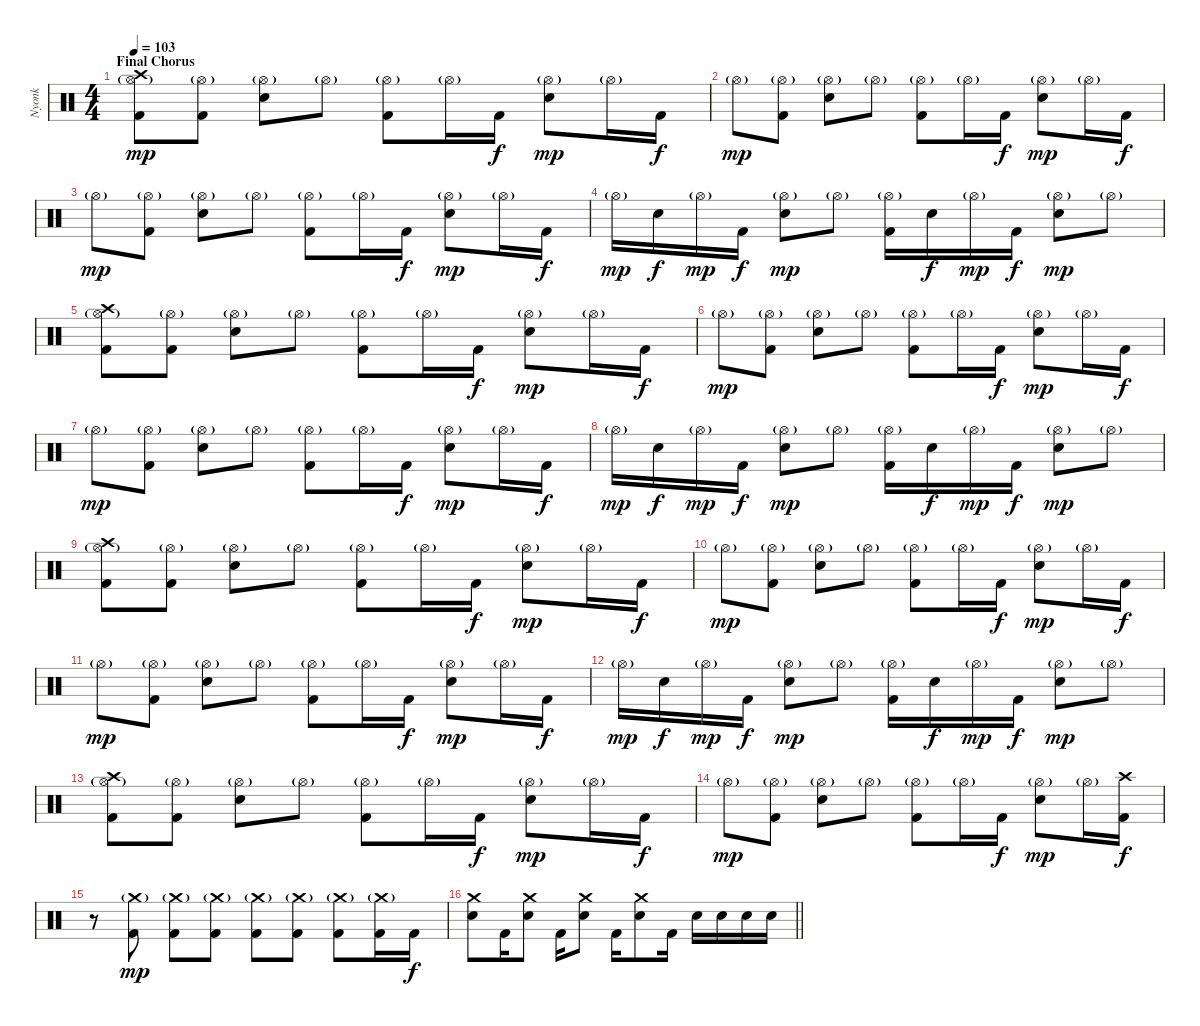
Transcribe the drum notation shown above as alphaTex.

\track ("Nyonk" "Nyonk") {instrument percussion}
\staff {score}
\articulation defaults
\ts (4 4)
\section ("" "Final Chorus")
\tempo 103
\clef neutral
\ks c
("Crash high (hit)" "Hi-Hat (open)"{g} "Kick (hit) 2").8{dy mp} ("Hi-Hat (open)"{g} "Kick (hit) 2").8 ("Hi-Hat (open)"{g} "Electric Snare (hit)").8 "Hi-Hat (open)"{g}.8 ("Hi-Hat (open)"{g} "Kick (hit) 2").8 "Hi-Hat (open)"{g}.16 "Kick (hit) 2".16{dy f} ("Hi-Hat (open)"{g} "Electric Snare (hit)").8{dy mp} "Hi-Hat (open)"{g}.16 "Kick (hit) 2".16{dy f} |
"Hi-Hat (open)"{g}.8{dy mp} ("Hi-Hat (open)"{g} "Kick (hit) 2").8 ("Hi-Hat (open)"{g} "Electric Snare (hit)").8 "Hi-Hat (open)"{g}.8 ("Hi-Hat (open)"{g} "Kick (hit) 2").8 "Hi-Hat (open)"{g}.16 "Kick (hit) 2".16{dy f} ("Hi-Hat (open)"{g} "Electric Snare (hit)").8{dy mp} "Hi-Hat (open)"{g}.16 "Kick (hit) 2".16{dy f} |
"Hi-Hat (open)"{g}.8{dy mp} ("Hi-Hat (open)"{g} "Kick (hit) 2").8 ("Hi-Hat (open)"{g} "Electric Snare (hit)").8 "Hi-Hat (open)"{g}.8 ("Hi-Hat (open)"{g} "Kick (hit) 2").8 "Hi-Hat (open)"{g}.16 "Kick (hit) 2".16{dy f} ("Hi-Hat (open)"{g} "Electric Snare (hit)").8{dy mp} "Hi-Hat (open)"{g}.16 "Kick (hit) 2".16{dy f} |
"Hi-Hat (open)"{g}.16{dy mp} "Electric Snare (hit)".16{dy f} "Hi-Hat (open)"{g}.16{dy mp} "Kick (hit) 2".16{dy f} ("Hi-Hat (open)"{g} "Electric Snare (hit)").8{dy mp} "Hi-Hat (open)"{g}.8 ("Hi-Hat (open)"{g} "Kick (hit) 2").16 "Electric Snare (hit)".16{dy f} "Hi-Hat (open)"{g}.16{dy mp} "Kick (hit) 2".16{dy f} ("Hi-Hat (open)"{g} "Electric Snare (hit)").8{dy mp} "Hi-Hat (open)"{g}.8 |
("Crash high (hit)" "Hi-Hat (open)"{g} "Kick (hit) 2").8 ("Hi-Hat (open)"{g} "Kick (hit) 2").8 ("Hi-Hat (open)"{g} "Electric Snare (hit)").8 "Hi-Hat (open)"{g}.8 ("Hi-Hat (open)"{g} "Kick (hit) 2").8 "Hi-Hat (open)"{g}.16 "Kick (hit) 2".16{dy f} ("Hi-Hat (open)"{g} "Electric Snare (hit)").8{dy mp} "Hi-Hat (open)"{g}.16 "Kick (hit) 2".16{dy f} |
"Hi-Hat (open)"{g}.8{dy mp} ("Hi-Hat (open)"{g} "Kick (hit) 2").8 ("Hi-Hat (open)"{g} "Electric Snare (hit)").8 "Hi-Hat (open)"{g}.8 ("Hi-Hat (open)"{g} "Kick (hit) 2").8 "Hi-Hat (open)"{g}.16 "Kick (hit) 2".16{dy f} ("Hi-Hat (open)"{g} "Electric Snare (hit)").8{dy mp} "Hi-Hat (open)"{g}.16 "Kick (hit) 2".16{dy f} |
"Hi-Hat (open)"{g}.8{dy mp} ("Hi-Hat (open)"{g} "Kick (hit) 2").8 ("Hi-Hat (open)"{g} "Electric Snare (hit)").8 "Hi-Hat (open)"{g}.8 ("Hi-Hat (open)"{g} "Kick (hit) 2").8 "Hi-Hat (open)"{g}.16 "Kick (hit) 2".16{dy f} ("Hi-Hat (open)"{g} "Electric Snare (hit)").8{dy mp} "Hi-Hat (open)"{g}.16 "Kick (hit) 2".16{dy f} |
"Hi-Hat (open)"{g}.16{dy mp} "Electric Snare (hit)".16{dy f} "Hi-Hat (open)"{g}.16{dy mp} "Kick (hit) 2".16{dy f} ("Hi-Hat (open)"{g} "Electric Snare (hit)").8{dy mp} "Hi-Hat (open)"{g}.8 ("Hi-Hat (open)"{g} "Kick (hit) 2").16 "Electric Snare (hit)".16{dy f} "Hi-Hat (open)"{g}.16{dy mp} "Kick (hit) 2".16{dy f} ("Hi-Hat (open)"{g} "Electric Snare (hit)").8{dy mp} "Hi-Hat (open)"{g}.8 |
("Crash high (hit)" "Hi-Hat (open)"{g} "Kick (hit) 2").8 ("Hi-Hat (open)"{g} "Kick (hit) 2").8 ("Hi-Hat (open)"{g} "Electric Snare (hit)").8 "Hi-Hat (open)"{g}.8 ("Hi-Hat (open)"{g} "Kick (hit) 2").8 "Hi-Hat (open)"{g}.16 "Kick (hit) 2".16{dy f} ("Hi-Hat (open)"{g} "Electric Snare (hit)").8{dy mp} "Hi-Hat (open)"{g}.16 "Kick (hit) 2".16{dy f} |
"Hi-Hat (open)"{g}.8{dy mp} ("Hi-Hat (open)"{g} "Kick (hit) 2").8 ("Hi-Hat (open)"{g} "Electric Snare (hit)").8 "Hi-Hat (open)"{g}.8 ("Hi-Hat (open)"{g} "Kick (hit) 2").8 "Hi-Hat (open)"{g}.16 "Kick (hit) 2".16{dy f} ("Hi-Hat (open)"{g} "Electric Snare (hit)").8{dy mp} "Hi-Hat (open)"{g}.16 "Kick (hit) 2".16{dy f} |
"Hi-Hat (open)"{g}.8{dy mp} ("Hi-Hat (open)"{g} "Kick (hit) 2").8 ("Hi-Hat (open)"{g} "Electric Snare (hit)").8 "Hi-Hat (open)"{g}.8 ("Hi-Hat (open)"{g} "Kick (hit) 2").8 "Hi-Hat (open)"{g}.16 "Kick (hit) 2".16{dy f} ("Hi-Hat (open)"{g} "Electric Snare (hit)").8{dy mp} "Hi-Hat (open)"{g}.16 "Kick (hit) 2".16{dy f} |
"Hi-Hat (open)"{g}.16{dy mp} "Electric Snare (hit)".16{dy f} "Hi-Hat (open)"{g}.16{dy mp} "Kick (hit) 2".16{dy f} ("Hi-Hat (open)"{g} "Electric Snare (hit)").8{dy mp} "Hi-Hat (open)"{g}.8 ("Hi-Hat (open)"{g} "Kick (hit) 2").16 "Electric Snare (hit)".16{dy f} "Hi-Hat (open)"{g}.16{dy mp} "Kick (hit) 2".16{dy f} ("Hi-Hat (open)"{g} "Electric Snare (hit)").8{dy mp} "Hi-Hat (open)"{g}.8 |
("Crash high (hit)" "Hi-Hat (open)"{g} "Kick (hit) 2").8 ("Hi-Hat (open)"{g} "Kick (hit) 2").8 ("Hi-Hat (open)"{g} "Electric Snare (hit)").8 "Hi-Hat (open)"{g}.8 ("Hi-Hat (open)"{g} "Kick (hit) 2").8 "Hi-Hat (open)"{g}.16 "Kick (hit) 2".16{dy f} ("Hi-Hat (open)"{g} "Electric Snare (hit)").8{dy mp} "Hi-Hat (open)"{g}.16 "Kick (hit) 2".16{dy f} |
"Hi-Hat (open)"{g}.8{dy mp} ("Hi-Hat (open)"{g} "Kick (hit) 2").8 ("Hi-Hat (open)"{g} "Electric Snare (hit)").8 "Hi-Hat (open)"{g}.8 ("Hi-Hat (open)"{g} "Kick (hit) 2").8 "Hi-Hat (open)"{g}.16 "Kick (hit) 2".16{dy f} ("Hi-Hat (open)"{g} "Electric Snare (hit)").8{dy mp} "Hi-Hat (open)"{g}.16 ("Crash high (hit)" "Kick (hit) 2").16{dy f} |
r.8 ("Crash medium (hit)"{g} "Kick (hit) 2").8{dy mp} ("Crash medium (hit)"{g} "Kick (hit) 2").8 ("Crash medium (hit)"{g} "Kick (hit) 2").8 ("Crash medium (hit)"{g} "Kick (hit) 2").8 ("Crash medium (hit)"{g} "Kick (hit) 2").8 ("Crash medium (hit)"{g} "Kick (hit) 2").8 ("Crash medium (hit)"{g} "Kick (hit) 2").16 "Kick (hit) 2".16{dy f} |
\barLineRight lightlight
("Crash medium (hit)" "Electric Snare (hit)").8 "Kick (hit) 2".16 ("Crash medium (hit)" "Electric Snare (hit)").8 "Kick (hit) 2".16 ("Crash medium (hit)" "Electric Snare (hit)").8 "Kick (hit) 2".16 ("Crash medium (hit)" "Electric Snare (hit)").8 "Kick (hit) 2".16 "Electric Snare (hit)".16 "Electric Snare (hit)".16 "Electric Snare (hit)".16 "Electric Snare (hit)".16
